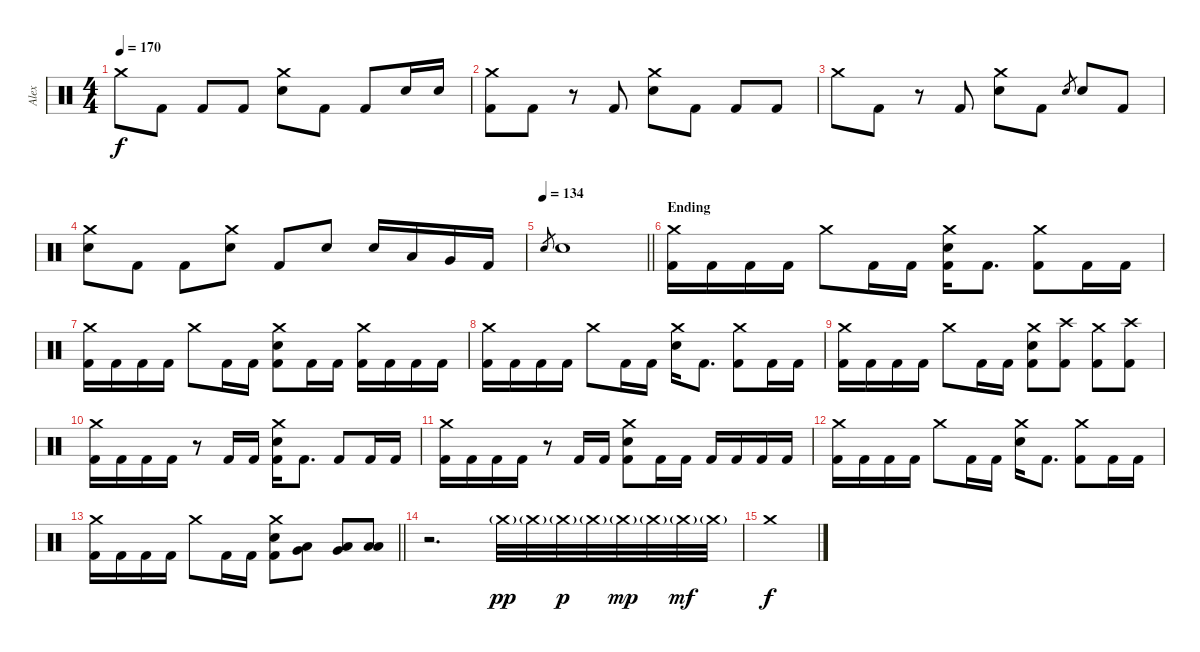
\track ("Alex" "Alex") {instrument percussion}
\staff {score}
\articulation defaults
\ts (4 4)
\tempo 170
\clef neutral
\ks c "Crash medium (hit)".8{dy f} "Kick (hit) 2".8 "Kick (hit) 2".8 "Kick (hit) 2".8
("Crash medium (hit)" "Electric Snare (hit)").8 "Kick (hit) 2".8 "Kick (hit) 2".8 "Electric Snare (hit)".16 "Electric Snare (hit)".16 |
("Crash medium (hit)" "Kick (hit) 2").8 "Kick (hit) 2".8 r.8 "Kick (hit) 2".8 ("Crash medium (hit)" "Electric Snare (hit)").8 "Kick (hit) 2".8 "Kick (hit) 2".8 "Kick (hit) 2".8 |
"Crash medium (hit)".8 "Kick (hit) 2".8 r.8 "Kick (hit) 2".8 ("Crash medium (hit)" "Electric Snare (hit)").8 "Kick (hit) 2".8 "Electric Snare (hit)".8{gr} "Electric Snare (hit)".8 "Kick (hit) 2".8 |
("Crash medium (hit)" "Electric Snare (hit)").8 "Kick (hit) 2".8 "Kick (hit) 2".8 ("Crash medium (hit)" "Electric Snare (hit)").8 "Kick (hit) 2".8 "Electric Snare (hit)".8 "Electric Snare (hit)".16 "Low Tom (hit)".16 "Very Low Tom (hit)".16 "Kick (hit) 2".16 |
\tempo 134
\barLineRight lightlight "Electric Snare (hit)".8{gr} "Electric Snare (hit)".1
|
\section ("" "Ending")
("Crash medium (hit)" "Kick (hit) 2").16 "Kick (hit) 2".16 "Kick (hit) 2".16 "Kick (hit) 2".16 "Crash medium (hit)".8 "Kick (hit) 2".16 "Kick (hit) 2".16 ("Crash medium (hit)" "Electric Snare (hit)" "Kick (hit) 2").16 "Kick (hit) 2".8{d} ("Crash medium (hit)" "Kick (hit) 2").8 "Kick (hit) 2".16 "Kick (hit) 2".16 |
("Crash medium (hit)" "Kick (hit) 2").16 "Kick (hit) 2".16 "Kick (hit) 2".16 "Kick (hit) 2".16 "Crash medium (hit)".8 "Kick (hit) 2".16 "Kick (hit) 2".16 ("Crash medium (hit)" "Electric Snare (hit)" "Kick (hit) 2").8 "Kick (hit) 2".16 "Kick (hit) 2".16 ("Crash medium (hit)" "Kick (hit) 2").16 "Kick (hit) 2".16 "Kick (hit) 2".16 "Kick (hit) 2".16 |
("Crash medium (hit)" "Kick (hit) 2").16 "Kick (hit) 2".16 "Kick (hit) 2".16 "Kick (hit) 2".16 "Crash medium (hit)".8 "Kick (hit) 2".16 "Kick (hit) 2".16 ("Crash medium (hit)" "Electric Snare (hit)").16 "Kick (hit) 2".8{d} ("Crash medium (hit)" "Kick (hit) 2").8 "Kick (hit) 2".16 "Kick (hit) 2".16 |
("Crash medium (hit)" "Kick (hit) 2").16 "Kick (hit) 2".16 "Kick (hit) 2".16 "Kick (hit) 2".16 "Crash medium (hit)".8 "Kick (hit) 2".16 "Kick (hit) 2".16 ("Crash medium (hit)" "Electric Snare (hit)" "Kick (hit) 2").8 ("Crash high (hit)" "Kick (hit) 2").8 ("Crash medium (hit)" "Kick (hit) 2").8 ("Crash high (hit)" "Kick (hit) 2").8 |
("Crash medium (hit)" "Kick (hit) 2").16 "Kick (hit) 2".16 "Kick (hit) 2".16 "Kick (hit) 2".16 r.8 "Kick (hit) 2".16 "Kick (hit) 2".16 ("Crash medium (hit)" "Electric Snare (hit)" "Kick (hit) 2").16 "Kick (hit) 2".8{d} "Kick (hit) 2".8 "Kick (hit) 2".16 "Kick (hit) 2".16 |
("Crash medium (hit)" "Kick (hit) 2").16 "Kick (hit) 2".16 "Kick (hit) 2".16 "Kick (hit) 2".16 r.8 "Kick (hit) 2".16 "Kick (hit) 2".16 ("Crash medium (hit)" "Electric Snare (hit)" "Kick (hit) 2").8 "Kick (hit) 2".16 "Kick (hit) 2".16 "Kick (hit) 2".16 "Kick (hit) 2".16 "Kick (hit) 2".16 "Kick (hit) 2".16 |
("Crash medium (hit)" "Kick (hit) 2").16 "Kick (hit) 2".16 "Kick (hit) 2".16 "Kick (hit) 2".16 "Crash medium (hit)".8 "Kick (hit) 2".16 "Kick (hit) 2".16 ("Crash medium (hit)" "Electric Snare (hit)").16 "Kick (hit) 2".8{d} ("Crash medium (hit)" "Kick (hit) 2").8 "Kick (hit) 2".16 "Kick (hit) 2".16 |
\barLineRight lightlight
("Crash medium (hit)" "Kick (hit) 2").16 "Kick (hit) 2".16 "Kick (hit) 2".16 "Kick (hit) 2".16 "Crash medium (hit)".8 "Kick (hit) 2".16 "Kick (hit) 2".16 ("Crash medium (hit)" "Electric Snare (hit)" "Kick (hit) 2").8 ("Very Low Tom (hit)" "Low Tom (hit)").8 ("Very Low Tom (hit)" "Low Tom (hit)").8 ("Low Floor Tom (hit)" "Low Tom (hit)").8 |
r.2{d} "Crash medium (hit)"{g}.32{dy pp} "Crash medium (hit)"{g}.32 "Crash medium (hit)"{g}.32{dy p} "Crash medium (hit)"{g}.32 "Crash medium (hit)"{g}.32{dy mp} "Crash medium (hit)"{g}.32 "Crash medium (hit)"{g}.32{dy mf} "Crash medium (hit)"{g}.32 |
"Crash medium (hit)".1{dy f}
